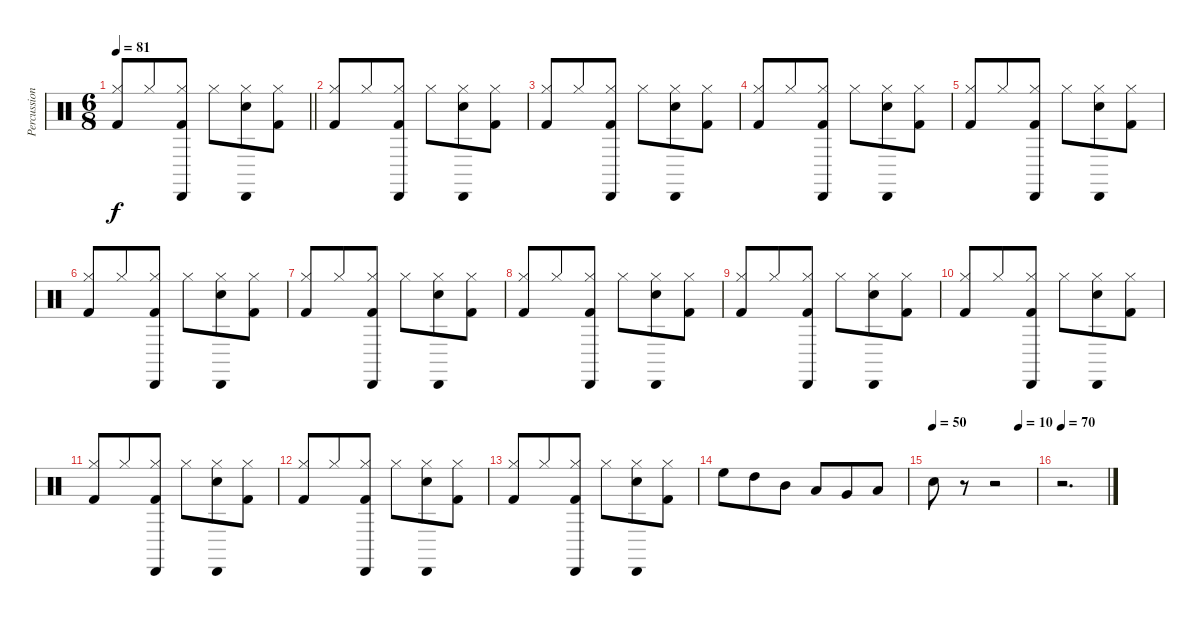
\track ("Percussion" "Percussion") {instrument percussion}
\staff {score}
\articulation defaults
\ts (6 8)
\tempo 81
\clef neutral
\barLineRight lightlight
\ks c
("Hi-Hat (closed)" "Kick (hit) 2").8{dy f} "Hi-Hat (closed)".8 ("Hi-Hat (closed)" "Kick (hit) 2" "Cabasa (hit)").8 "Hi-Hat (closed)".8 ("Hi-Hat (closed)" "Snare (hit) 2" "Cabasa (hit)").8 ("Hi-Hat (closed)" "Kick (hit) 2").8 |
("Hi-Hat (closed)" "Kick (hit) 2").8 "Hi-Hat (closed)".8 ("Hi-Hat (closed)" "Kick (hit) 2" "Cabasa (hit)").8 "Hi-Hat (closed)".8 ("Hi-Hat (closed)" "Snare (hit) 2" "Cabasa (hit)").8 ("Hi-Hat (closed)" "Kick (hit) 2").8 |
("Hi-Hat (closed)" "Kick (hit) 2").8 "Hi-Hat (closed)".8 ("Hi-Hat (closed)" "Kick (hit) 2" "Cabasa (hit)").8 "Hi-Hat (closed)".8 ("Hi-Hat (closed)" "Snare (hit) 2" "Cabasa (hit)").8 ("Hi-Hat (closed)" "Kick (hit) 2").8 |
("Hi-Hat (closed)" "Kick (hit) 2").8 "Hi-Hat (closed)".8 ("Hi-Hat (closed)" "Kick (hit) 2" "Cabasa (hit)").8 "Hi-Hat (closed)".8 ("Hi-Hat (closed)" "Snare (hit) 2" "Cabasa (hit)").8 ("Hi-Hat (closed)" "Kick (hit) 2").8 |
("Hi-Hat (closed)" "Kick (hit) 2").8 "Hi-Hat (closed)".8 ("Hi-Hat (closed)" "Kick (hit) 2" "Cabasa (hit)").8 "Hi-Hat (closed)".8 ("Hi-Hat (closed)" "Snare (hit) 2" "Cabasa (hit)").8 ("Hi-Hat (closed)" "Kick (hit) 2").8 |
("Hi-Hat (closed)" "Kick (hit) 2").8 "Hi-Hat (closed)".8 ("Hi-Hat (closed)" "Kick (hit) 2" "Cabasa (hit)").8 "Hi-Hat (closed)".8 ("Hi-Hat (closed)" "Snare (hit) 2" "Cabasa (hit)").8 ("Hi-Hat (closed)" "Kick (hit) 2").8 |
("Hi-Hat (closed)" "Kick (hit) 2").8 "Hi-Hat (closed)".8 ("Hi-Hat (closed)" "Kick (hit) 2" "Cabasa (hit)").8 "Hi-Hat (closed)".8 ("Hi-Hat (closed)" "Snare (hit) 2" "Cabasa (hit)").8 ("Hi-Hat (closed)" "Kick (hit) 2").8 |
("Hi-Hat (closed)" "Kick (hit) 2").8 "Hi-Hat (closed)".8 ("Hi-Hat (closed)" "Kick (hit) 2" "Cabasa (hit)").8 "Hi-Hat (closed)".8 ("Hi-Hat (closed)" "Snare (hit) 2" "Cabasa (hit)").8 ("Hi-Hat (closed)" "Kick (hit) 2").8 |
("Hi-Hat (closed)" "Kick (hit) 2").8 "Hi-Hat (closed)".8 ("Hi-Hat (closed)" "Kick (hit) 2" "Cabasa (hit)").8 "Hi-Hat (closed)".8 ("Hi-Hat (closed)" "Snare (hit) 2" "Cabasa (hit)").8 ("Hi-Hat (closed)" "Kick (hit) 2").8 |
("Hi-Hat (closed)" "Kick (hit) 2").8 "Hi-Hat (closed)".8 ("Hi-Hat (closed)" "Kick (hit) 2" "Cabasa (hit)").8 "Hi-Hat (closed)".8 ("Hi-Hat (closed)" "Snare (hit) 2" "Cabasa (hit)").8 ("Hi-Hat (closed)" "Kick (hit) 2").8 |
("Hi-Hat (closed)" "Kick (hit) 2").8 "Hi-Hat (closed)".8 ("Hi-Hat (closed)" "Kick (hit) 2" "Cabasa (hit)").8 "Hi-Hat (closed)".8 ("Hi-Hat (closed)" "Snare (hit) 2" "Cabasa (hit)").8 ("Hi-Hat (closed)" "Kick (hit) 2").8 |
("Hi-Hat (closed)" "Kick (hit) 2").8 "Hi-Hat (closed)".8 ("Hi-Hat (closed)" "Kick (hit) 2" "Cabasa (hit)").8 "Hi-Hat (closed)".8 ("Hi-Hat (closed)" "Snare (hit) 2" "Cabasa (hit)").8 ("Hi-Hat (closed)" "Kick (hit) 2").8 |
("Hi-Hat (closed)" "Kick (hit) 2").8 "Hi-Hat (closed)".8 ("Hi-Hat (closed)" "Kick (hit) 2" "Cabasa (hit)").8 "Hi-Hat (closed)".8 ("Hi-Hat (closed)" "Snare (hit) 2" "Cabasa (hit)").8 ("Hi-Hat (closed)" "Kick (hit) 2").8 |
"High Floor Tom (hit)".8 "High Tom (hit)".8 "Mid Tom (hit)".8 "Low Tom (hit)".8 "Very Low Tom (hit)".8 "Low Floor Tom (hit)".8 |
\tempo 50
\tempo (10 0.8333333333333334)
"Electric Snare (hit)".8 r.8 r.2 |
\tempo 70
r.2{d}
